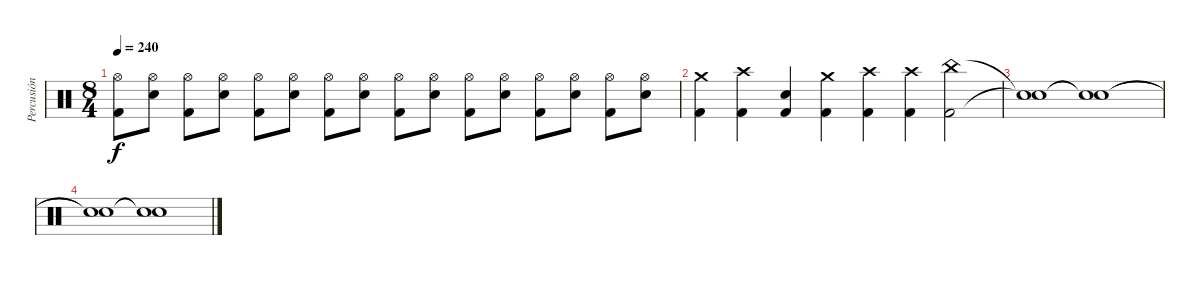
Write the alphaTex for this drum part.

\track ("Percusión" "Percusión") {instrument percussion}
\staff {score}
\articulation defaults
\ts (8 4)
\tempo 240
\clef neutral
\ks c
("Hi-Hat (open)" "Kick (hit) 2").8{dy f} ("Hi-Hat (open)" "Electric Snare (hit)").8 ("Hi-Hat (open)" "Kick (hit) 2").8 ("Hi-Hat (open)" "Electric Snare (hit)").8 ("Hi-Hat (open)" "Kick (hit) 2").8 ("Hi-Hat (open)" "Electric Snare (hit)").8 ("Hi-Hat (open)" "Kick (hit) 2").8 ("Hi-Hat (open)" "Electric Snare (hit)").8 ("Hi-Hat (open)" "Kick (hit) 2").8 ("Hi-Hat (open)" "Electric Snare (hit)").8 ("Hi-Hat (open)" "Kick (hit) 2").8 ("Hi-Hat (open)" "Electric Snare (hit)").8 ("Hi-Hat (open)" "Kick (hit) 2").8 ("Hi-Hat (open)" "Electric Snare (hit)").8 ("Hi-Hat (open)" "Kick (hit) 2").8 ("Hi-Hat (open)" "Electric Snare (hit)").8 |
("Crash medium (hit)" "Kick (hit) 2").4 ("Crash high (hit)" "Kick (hit) 2").4 ("Electric Snare (hit)" "Kick (hit) 2").4 ("Crash medium (hit)" "Kick (hit) 2").4 ("Crash high (hit)" "Kick (hit) 2").4 ("Crash high (hit)" "Kick (hit) 2").4 ("China (hit)" "Kick (hit) 2").2 |
("Snare (hit)"{t} "Snare (hit)"{t}).1 ("Snare (hit)"{t} "Snare (hit)"{t}).1 |
("Snare (hit)"{t} "Snare (hit)"{t}).1 ("Snare (hit)"{t} "Snare (hit)"{t}).1
